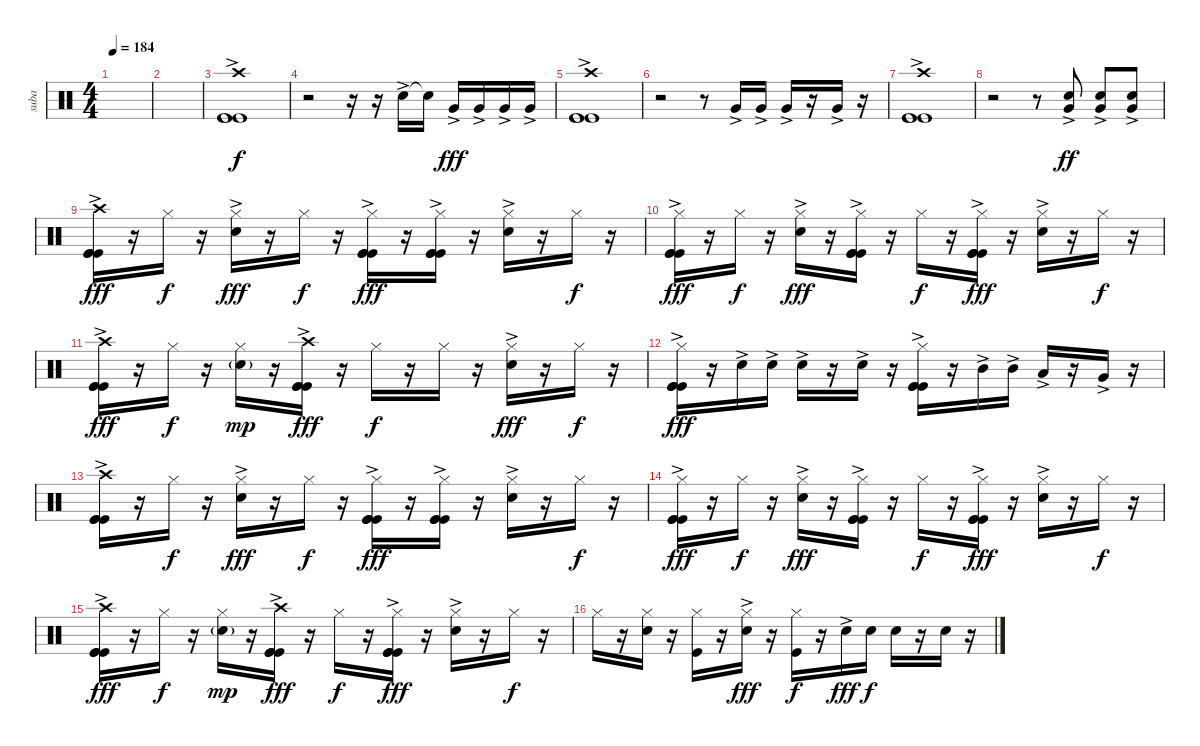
\track ("suba" "suba") {instrument percussion}
\staff {score}
\articulation defaults
\ts (4 4)
\tempo 184
\clef neutral
\ks c
|
|
("Crash high (hit)" "Kick (hit)"{ac} "Kick (hit)"{ac} "Kick (hit)"{ac}).1 |
r.2 r.16 r.16 "Snare (hit) 2"{ac}.16 "Snare (hit) 2"{t}.16{dy f} "Very Low Tom (hit)"{ac}.16{dy fff} "Very Low Tom (hit)"{ac}.16 "Very Low Tom (hit)"{ac}.16 "Very Low Tom (hit)"{ac}.16 |
("Crash high (hit)" "Kick (hit)"{ac} "Kick (hit)"{ac} "Kick (hit)"{ac}).1 |
r.2 r.8 "Very Low Tom (hit)"{ac}.16 "Very Low Tom (hit)"{ac}.16 "Very Low Tom (hit)"{ac}.16 r.16 "Very Low Tom (hit)"{ac}.16 r.16 |
("Crash high (hit)" "Kick (hit)"{ac} "Kick (hit)"{ac} "Kick (hit)"{ac}).1 |
r.2 r.8 ("Snare (hit) 2"{ac} "Very Low Tom (hit)"{ac}).8{dy ff} ("Snare (hit) 2"{ac} "Very Low Tom (hit)"{ac}).8 ("Snare (hit) 2"{ac} "Very Low Tom (hit)"{ac}).8 |
("Crash high (hit)"{ac} "Kick (hit)"{ac} "Kick (hit)"{ac} "Kick (hit)"{ac}).16{dy fff} r.16 "Hi-Hat (closed)".16{dy f} r.16 ("Hi-Hat (closed)" "Snare (hit) 2"{ac}).16{dy fff} r.16 "Hi-Hat (closed)".16{dy f} r.16 ("Hi-Hat (closed)" "Kick (hit)"{ac} "Kick (hit)"{ac} "Kick (hit)"{ac}).16{dy fff} r.16 ("Hi-Hat (closed)" "Kick (hit)"{ac} "Kick (hit)"{ac} "Kick (hit)"{ac}).16 r.16 ("Hi-Hat (closed)" "Snare (hit) 2"{ac}).16 r.16 "Hi-Hat (closed)".16{dy f} r.16 |
("Hi-Hat (closed)" "Kick (hit)"{ac} "Kick (hit)"{ac} "Kick (hit)"{ac}).16{dy fff} r.16 "Hi-Hat (closed)".16{dy f} r.16 ("Hi-Hat (closed)" "Snare (hit) 2"{ac}).16{dy fff} r.16 ("Hi-Hat (closed)" "Kick (hit)"{ac} "Kick (hit)"{ac} "Kick (hit)"{ac}).16 r.16 "Hi-Hat (closed)".16{dy f} r.16 ("Hi-Hat (closed)" "Kick (hit)"{ac} "Kick (hit)"{ac} "Kick (hit)"{ac}).16{dy fff} r.16 ("Hi-Hat (closed)" "Snare (hit) 2"{ac}).16 r.16 "Hi-Hat (closed)".16{dy f} r.16 |
("Crash high (hit)"{ac} "Kick (hit)"{ac} "Kick (hit)"{ac} "Kick (hit)"{ac}).16{dy fff} r.16 "Hi-Hat (closed)".16{dy f} r.16 ("Hi-Hat (closed)" "Snare (hit) 2"{g}).16{dy mp} r.16 ("Crash high (hit)" "Kick (hit)"{ac} "Kick (hit)"{ac} "Kick (hit)"{ac}).16{dy fff} r.16 "Hi-Hat (closed)".16{dy f} r.16 "Hi-Hat (closed)".16 r.16 ("Hi-Hat (closed)" "Snare (hit) 2"{ac}).16{dy fff} r.16 "Hi-Hat (closed)".16{dy f} r.16 |
("Hi-Hat (closed)" "Kick (hit)"{ac} "Kick (hit)"{ac} "Kick (hit)"{ac}).16{dy fff} r.16 "Snare (hit) 2"{ac}.16 "Snare (hit) 2"{ac}.16 "Snare (hit) 2"{ac}.16 r.16 "Snare (hit) 2"{ac}.16 r.16 ("Hi-Hat (closed)" "Kick (hit)"{ac} "Kick (hit)"{ac} "Kick (hit)"{ac}).16 r.16 "Mid Tom (hit)"{ac}.16 "Mid Tom (hit)"{ac}.16 "Low Tom (hit)"{ac}.16 r.16 "Very Low Tom (hit)"{ac}.16 r.16 |
("Crash high (hit)"{ac} "Kick (hit)"{ac} "Kick (hit)"{ac} "Kick (hit)"{ac}).16 r.16 "Hi-Hat (closed)".16{dy f} r.16 ("Hi-Hat (closed)" "Snare (hit) 2"{ac}).16{dy fff} r.16 "Hi-Hat (closed)".16{dy f} r.16 ("Hi-Hat (closed)" "Kick (hit)"{ac} "Kick (hit)"{ac} "Kick (hit)"{ac}).16{dy fff} r.16 ("Hi-Hat (closed)" "Kick (hit)"{ac} "Kick (hit)"{ac} "Kick (hit)"{ac}).16 r.16 ("Hi-Hat (closed)" "Snare (hit) 2"{ac}).16 r.16 "Hi-Hat (closed)".16{dy f} r.16 |
("Hi-Hat (closed)" "Kick (hit)"{ac} "Kick (hit)"{ac} "Kick (hit)"{ac}).16{dy fff} r.16 "Hi-Hat (closed)".16{dy f} r.16 ("Hi-Hat (closed)" "Snare (hit) 2"{ac}).16{dy fff} r.16 ("Hi-Hat (closed)" "Kick (hit)"{ac} "Kick (hit)"{ac} "Kick (hit)"{ac}).16 r.16 "Hi-Hat (closed)".16{dy f} r.16 ("Hi-Hat (closed)" "Kick (hit)"{ac} "Kick (hit)"{ac} "Kick (hit)"{ac}).16{dy fff} r.16 ("Hi-Hat (closed)" "Snare (hit) 2"{ac}).16 r.16 "Hi-Hat (closed)".16{dy f} r.16 |
("Crash high (hit)"{ac} "Kick (hit)"{ac} "Kick (hit)"{ac} "Kick (hit)"{ac}).16{dy fff} r.16 "Hi-Hat (closed)".16{dy f} r.16 ("Hi-Hat (closed)" "Snare (hit) 2"{g}).16{dy mp} r.16 ("Crash high (hit)" "Kick (hit)"{ac} "Kick (hit)"{ac} "Kick (hit)"{ac}).16{dy fff} r.16 "Hi-Hat (closed)".16{dy f} r.16 ("Hi-Hat (closed)" "Kick (hit)"{ac} "Kick (hit)"{ac} "Kick (hit)"{ac}).16{dy fff} r.16 ("Hi-Hat (closed)" "Snare (hit) 2"{ac}).16 r.16 "Hi-Hat (closed)".16{dy f} r.16 |
"Hi-Hat (closed)".16 r.16 ("Hi-Hat (closed)" "Snare (hit) 2").16 r.16 ("Hi-Hat (closed)" "Kick (hit)").16 r.16 ("Hi-Hat (closed)" "Snare (hit) 2"{ac}).16{dy fff} r.16 ("Hi-Hat (closed)" "Kick (hit)").16{dy f} r.16 "Snare (hit) 2"{ac}.16{dy fff} "Snare (hit) 2".16{dy f} "Snare (hit) 2".16 r.16 "Snare (hit) 2".16 r.16
